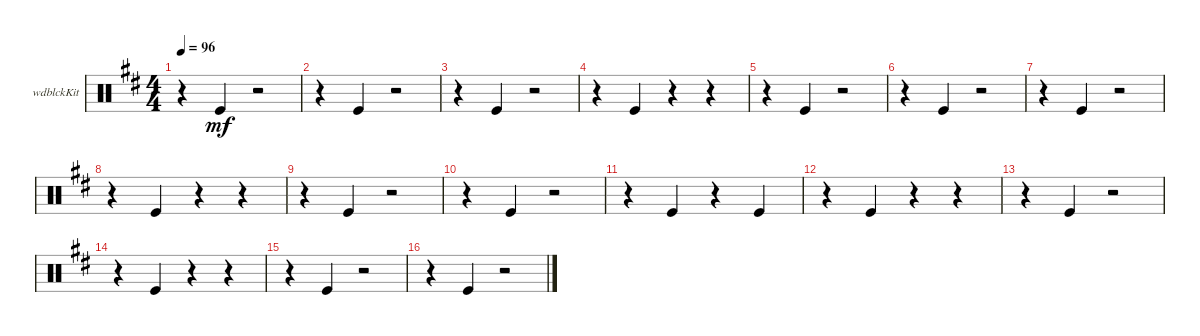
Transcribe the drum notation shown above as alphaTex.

\defaultSystemsLayout 4
\bracketExtendMode groupsimilarinstruments
\firstSystemTrackNameOrientation horizontal
\otherSystemsTrackNameOrientation horizontal
\track ("Woodblock" "wdblckKit") {instrument percussion}
\staff {score}
\articulation defaults
\ts (4 4)
\tempo 96
\clef neutral
\ks d
r.4{dy mf} "Kick (hit)".4 r.2 |
r.4 "Kick (hit)".4 r.2 |
r.4 "Kick (hit)".4 r.2 |
r.4 "Kick (hit)".4 r.4 r.4 |
r.4 "Kick (hit)".4 r.2 |
r.4 "Kick (hit)".4 r.2 |
r.4 "Kick (hit)".4 r.2 |
r.4 "Kick (hit)".4 r.4 r.4 |
r.4 "Kick (hit)".4 r.2 |
r.4 "Kick (hit)".4 r.2 |
r.4 "Kick (hit)".4 r.4 "Kick (hit)".4 |
r.4 "Kick (hit)".4 r.4 r.4 |
r.4 "Kick (hit)".4 r.2 |
r.4 "Kick (hit)".4 r.4 r.4 |
r.4 "Kick (hit)".4 r.2 |
r.4 "Kick (hit)".4 r.2
